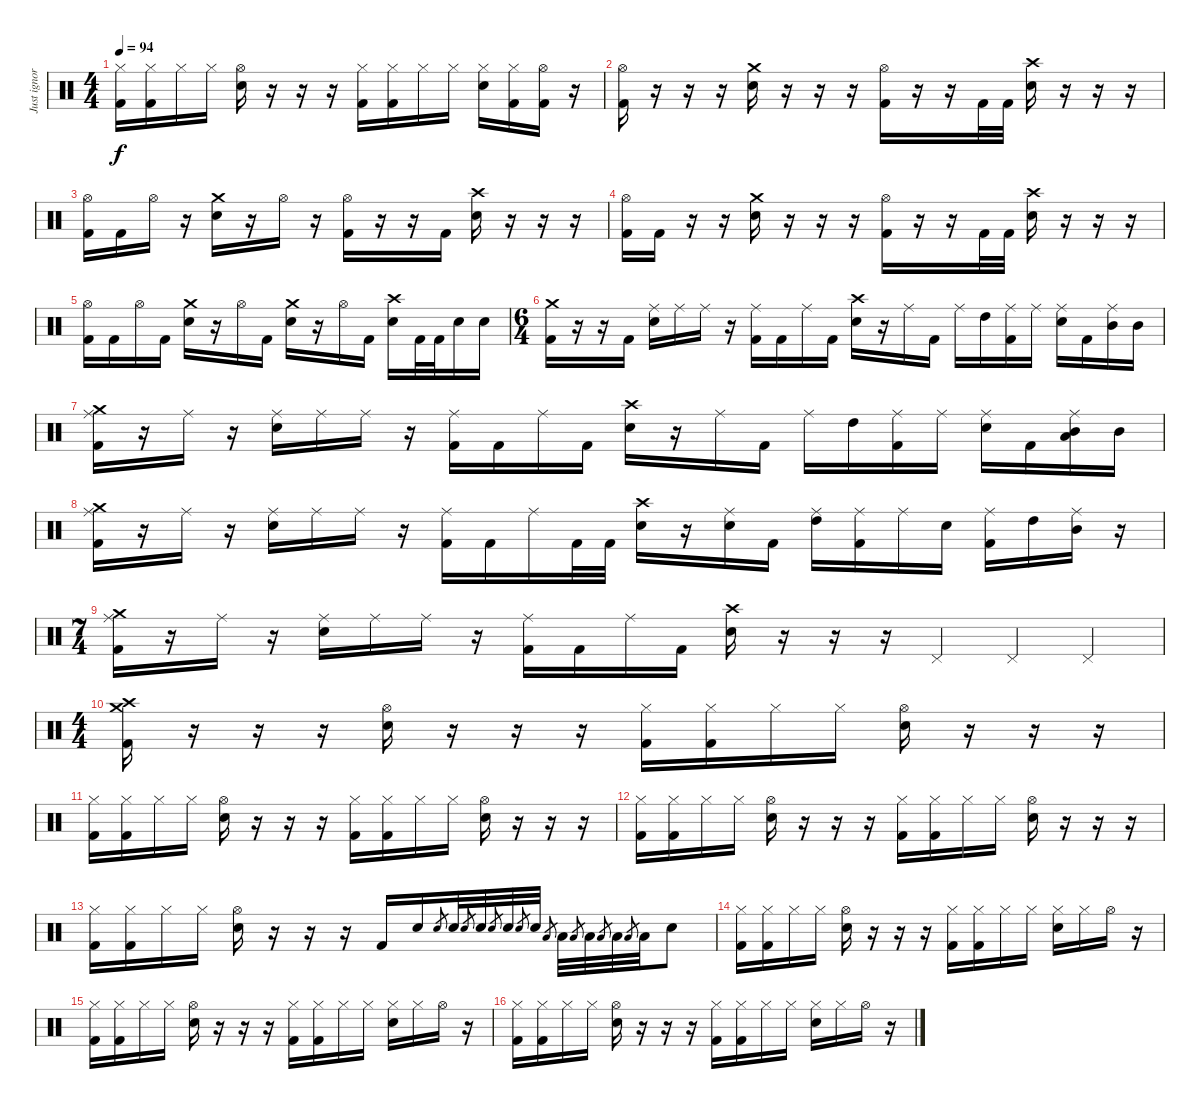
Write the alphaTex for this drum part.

\track ("Just ignore this track" "Just ignor") {instrument percussion}
\staff {score}
\articulation defaults
\ts (4 4)
\tempo 94
\clef neutral
\ks c
("Hi-Hat (closed)" "Kick (hit) 2").16{dy f} ("Hi-Hat (closed)" "Kick (hit) 2").16 "Hi-Hat (closed)".16 "Hi-Hat (closed)".16 ("Hi-Hat (open)" "Electric Snare (hit)").16 r.16 r.16 r.16 ("Hi-Hat (closed)" "Kick (hit) 2").16 ("Hi-Hat (closed)" "Kick (hit) 2").16 "Hi-Hat (closed)".16 "Hi-Hat (closed)".16 ("Hi-Hat (closed)" "Electric Snare (hit)").16 ("Hi-Hat (closed)" "Kick (hit) 2").16 ("Hi-Hat (open)" "Kick (hit) 2").16 r.16 |
("Hi-Hat (open)" "Kick (hit) 2").16 r.16 r.16 r.16 ("Crash medium (hit)" "Electric Snare (hit)").16 r.16 r.16 r.16 ("Hi-Hat (open)" "Kick (hit) 2").16 r.16 r.16 "Kick (hit) 2".32 "Kick (hit) 2".32 ("Crash high (hit)" "Electric Snare (hit)").16 r.16 r.16 r.16 |
("Hi-Hat (open)" "Kick (hit) 2").16 "Kick (hit) 2".16 "Hi-Hat (open)".16 r.16 ("Crash medium (hit)" "Electric Snare (hit)").16 r.16 "Hi-Hat (open)".16 r.16 ("Hi-Hat (open)" "Kick (hit) 2").16 r.16 r.16 "Kick (hit) 2".16 ("Crash high (hit)" "Electric Snare (hit)").16 r.16 r.16 r.16 |
("Hi-Hat (open)" "Kick (hit) 2").16 "Kick (hit) 2".16 r.16 r.16 ("Crash medium (hit)" "Electric Snare (hit)").16 r.16 r.16 r.16 ("Hi-Hat (open)" "Kick (hit) 2").16 r.16 r.16 "Kick (hit) 2".32 "Kick (hit) 2".32 ("Crash high (hit)" "Electric Snare (hit)").16 r.16 r.16 r.16 |
("Hi-Hat (open)" "Kick (hit) 2").16 "Kick (hit) 2".16 "Hi-Hat (open)".16 "Kick (hit) 2".16 ("Crash medium (hit)" "Electric Snare (hit)").16 r.16 "Hi-Hat (open)".16 "Kick (hit) 2".16 ("Crash medium (hit)" "Electric Snare (hit)").16 r.16 "Hi-Hat (open)".16 "Kick (hit) 2".16 ("Crash high (hit)" "Electric Snare (hit)").16 "Kick (hit) 2".32 "Kick (hit) 2".32 "Electric Snare (hit)".16 "Electric Snare (hit)".16 |
\ts (6 4)
("Crash medium (hit)" "Kick (hit) 2").16 r.16 r.16 "Kick (hit) 2".16 ("Ride (middle)" "Electric Snare (hit)").16 "Ride (middle)".16 "Ride (middle)".16 r.16 ("Ride (middle)" "Kick (hit) 2").16 "Kick (hit) 2".16 "Ride (middle)".16 "Kick (hit) 2".16 ("Crash high (hit)" "Electric Snare (hit)").16 r.16 "Ride (middle)".16 "Kick (hit) 2".16 "Ride (middle)".16 "High Tom (hit)".16 ("Ride (middle)" "Kick (hit) 2").16 "Ride (middle)".16 ("Ride (middle)" "Electric Snare (hit)").16 "Kick (hit) 2".16 ("Ride (middle)" "Mid Tom (hit)").16 "Mid Tom (hit)".16 |
("Crash medium (hit)" "Ride (middle)" "Kick (hit) 2").16 r.16 "Ride (middle)".16 r.16 ("Ride (middle)" "Electric Snare (hit)").16 "Ride (middle)".16 "Ride (middle)".16 r.16 ("Ride (middle)" "Kick (hit) 2").16 "Kick (hit) 2".16 "Ride (middle)".16 "Kick (hit) 2".16 ("Crash high (hit)" "Electric Snare (hit)").16 r.16 "Ride (middle)".16 "Kick (hit) 2".16 "Ride (middle)".16 "High Tom (hit)".16 ("Ride (middle)" "Kick (hit) 2").16 "Ride (middle)".16 ("Ride (middle)" "Electric Snare (hit)").16 "Kick (hit) 2".16 ("Ride (middle)" "Low Floor Tom (hit)" "Mid Tom (hit)").16 "Mid Tom (hit)".16 |
("Crash medium (hit)" "Ride (middle)" "Kick (hit) 2").16 r.16 "Ride (middle)".16 r.16 ("Ride (middle)" "Electric Snare (hit)").16 "Ride (middle)".16 "Ride (middle)".16 r.16 ("Ride (middle)" "Kick (hit) 2").16 "Kick (hit) 2".16 "Ride (middle)".16 "Kick (hit) 2".32 "Kick (hit) 2".32 ("Crash high (hit)" "Electric Snare (hit)").16 r.16 ("Ride (middle)" "Electric Snare (hit)").16 "Kick (hit) 2".16 ("Ride (middle)" "High Tom (hit)").16 ("Ride (middle)" "Kick (hit) 2").16 "Ride (middle)".16 "Electric Snare (hit)".16 ("Ride (middle)" "Kick (hit) 2").16 "High Tom (hit)".16 ("Ride (middle)" "Mid Tom (hit)").16 r.16 |
\ts (7 4)
("Crash medium (hit)" "Ride (middle)" "Kick (hit) 2").16 r.16 "Ride (middle)".16 r.16 ("Ride (middle)" "Electric Snare (hit)").16 "Ride (middle)".16 "Ride (middle)".16 r.16 ("Ride (middle)" "Kick (hit) 2").16 "Kick (hit) 2".16 "Ride (middle)".16 "Kick (hit) 2".16 ("Crash high (hit)" "Electric Snare (hit)").16 r.16 r.16 r.16 "Pedal Hi-Hat (hit)".4 "Pedal Hi-Hat (hit)".4 "Pedal Hi-Hat (hit)".4 |
\ts (4 4)
("Crash medium (hit)" "Crash high (hit)" "Kick (hit) 2").16 r.16 r.16 r.16 ("Hi-Hat (open)" "Electric Snare (hit)").16 r.16 r.16 r.16 ("Hi-Hat (closed)" "Kick (hit) 2").16 ("Hi-Hat (closed)" "Kick (hit) 2").16 "Hi-Hat (closed)".16 "Hi-Hat (closed)".16 ("Hi-Hat (open)" "Electric Snare (hit)").16 r.16 r.16 r.16 |
("Hi-Hat (closed)" "Kick (hit) 2").16 ("Hi-Hat (closed)" "Kick (hit) 2").16 "Hi-Hat (closed)".16 "Hi-Hat (closed)".16 ("Hi-Hat (open)" "Electric Snare (hit)").16 r.16 r.16 r.16 ("Hi-Hat (closed)" "Kick (hit) 2").16 ("Hi-Hat (closed)" "Kick (hit) 2").16 "Hi-Hat (closed)".16 "Hi-Hat (closed)".16 ("Hi-Hat (open)" "Electric Snare (hit)").16 r.16 r.16 r.16 |
("Hi-Hat (closed)" "Kick (hit) 2").16 ("Hi-Hat (closed)" "Kick (hit) 2").16 "Hi-Hat (closed)".16 "Hi-Hat (closed)".16 ("Hi-Hat (open)" "Electric Snare (hit)").16 r.16 r.16 r.16 ("Hi-Hat (closed)" "Kick (hit) 2").16 ("Hi-Hat (closed)" "Kick (hit) 2").16 "Hi-Hat (closed)".16 "Hi-Hat (closed)".16 ("Hi-Hat (open)" "Electric Snare (hit)").16 r.16 r.16 r.16 |
("Hi-Hat (closed)" "Kick (hit) 2").16 ("Hi-Hat (closed)" "Kick (hit) 2").16 "Hi-Hat (closed)".16 "Hi-Hat (closed)".16 ("Hi-Hat (open)" "Electric Snare (hit)").16 r.16 r.16 r.16 "Kick (hit) 2".16 "Electric Snare (hit)".16 "Electric Snare (hit)".8{gr} "Electric Snare (hit)".32 "Electric Snare (hit)".8{gr} "Electric Snare (hit)".32 "Electric Snare (hit)".8{gr} "Electric Snare (hit)".32 "Electric Snare (hit)".8{gr} "Electric Snare (hit)".32 "Low Tom (hit)".8{gr} "Low Tom (hit)".32 "Low Tom (hit)".8{gr} "Low Tom (hit)".32 "Low Tom (hit)".8{gr} "Low Tom (hit)".32 "Low Tom (hit)".8{gr} "Low Tom (hit)".32 "Electric Snare (hit)".8 |
("Hi-Hat (closed)" "Kick (hit) 2").16 ("Hi-Hat (closed)" "Kick (hit) 2").16 "Hi-Hat (closed)".16 "Hi-Hat (closed)".16 ("Hi-Hat (open)" "Electric Snare (hit)").16 r.16 r.16 r.16 ("Hi-Hat (closed)" "Kick (hit) 2").16 ("Hi-Hat (closed)" "Kick (hit) 2").16 "Hi-Hat (closed)".16 "Hi-Hat (closed)".16 ("Hi-Hat (closed)" "Electric Snare (hit)").16 "Hi-Hat (closed)".16 "Hi-Hat (open)".16 r.16 |
("Hi-Hat (closed)" "Kick (hit) 2").16 ("Hi-Hat (closed)" "Kick (hit) 2").16 "Hi-Hat (closed)".16 "Hi-Hat (closed)".16 ("Hi-Hat (open)" "Electric Snare (hit)").16 r.16 r.16 r.16 ("Hi-Hat (closed)" "Kick (hit) 2").16 ("Hi-Hat (closed)" "Kick (hit) 2").16 "Hi-Hat (closed)".16 "Hi-Hat (closed)".16 ("Hi-Hat (closed)" "Electric Snare (hit)").16 "Hi-Hat (closed)".16 "Hi-Hat (open)".16 r.16 |
("Hi-Hat (closed)" "Kick (hit) 2").16 ("Hi-Hat (closed)" "Kick (hit) 2").16 "Hi-Hat (closed)".16 "Hi-Hat (closed)".16 ("Hi-Hat (open)" "Electric Snare (hit)").16 r.16 r.16 r.16 ("Hi-Hat (closed)" "Kick (hit) 2").16 ("Hi-Hat (closed)" "Kick (hit) 2").16 "Hi-Hat (closed)".16 "Hi-Hat (closed)".16 ("Hi-Hat (closed)" "Electric Snare (hit)").16 "Hi-Hat (closed)".16 "Hi-Hat (open)".16 r.16
